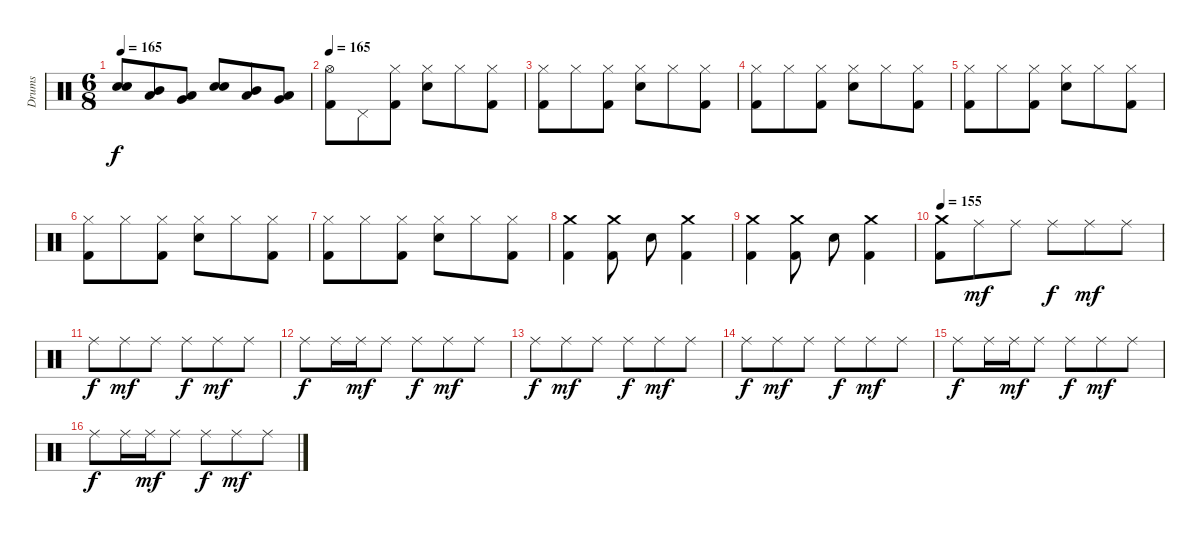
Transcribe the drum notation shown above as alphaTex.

\track ("Drums" "Drums") {instrument percussion}
\staff {score}
\articulation defaults
\ts (6 8)
\tempo 165
\clef neutral
\ks c
("Electric Snare (hit)" "Electric Snare (hit)").8{dy f} ("Low Tom (hit)" "Mid Tom (hit)").8 ("Very Low Tom (hit)" "Low Tom (hit)").8 ("Electric Snare (hit)" "Electric Snare (hit)").8 ("Low Tom (hit)" "Mid Tom (hit)").8 ("Very Low Tom (hit)" "Low Tom (hit)").8 |
\tempo 165
("Hi-Hat (open)" "Kick (hit) 2").8 "Pedal Hi-Hat (hit)".8 ("Hi-Hat (closed)" "Kick (hit) 2").8 ("Hi-Hat (closed)" "Electric Snare (hit)").8 "Hi-Hat (closed)".8 ("Hi-Hat (closed)" "Kick (hit) 2").8 |
("Hi-Hat (closed)" "Kick (hit) 2").8 "Hi-Hat (closed)".8 ("Hi-Hat (closed)" "Kick (hit) 2").8 ("Hi-Hat (closed)" "Electric Snare (hit)").8 "Hi-Hat (closed)".8 ("Hi-Hat (closed)" "Kick (hit) 2").8 |
("Hi-Hat (closed)" "Kick (hit) 2").8 "Hi-Hat (closed)".8 ("Hi-Hat (closed)" "Kick (hit) 2").8 ("Hi-Hat (closed)" "Electric Snare (hit)").8 "Hi-Hat (closed)".8 ("Hi-Hat (closed)" "Kick (hit) 2").8 |
("Hi-Hat (closed)" "Kick (hit) 2").8 "Hi-Hat (closed)".8 ("Hi-Hat (closed)" "Kick (hit) 2").8 ("Hi-Hat (closed)" "Electric Snare (hit)").8 "Hi-Hat (closed)".8 ("Hi-Hat (closed)" "Kick (hit) 2").8 |
("Hi-Hat (closed)" "Kick (hit) 2").8 "Hi-Hat (closed)".8 ("Hi-Hat (closed)" "Kick (hit) 2").8 ("Hi-Hat (closed)" "Electric Snare (hit)").8 "Hi-Hat (closed)".8 ("Hi-Hat (closed)" "Kick (hit) 2").8 |
("Hi-Hat (closed)" "Kick (hit) 2").8 "Hi-Hat (closed)".8 ("Hi-Hat (closed)" "Kick (hit) 2").8 ("Hi-Hat (closed)" "Electric Snare (hit)").8 "Hi-Hat (closed)".8 ("Hi-Hat (closed)" "Kick (hit) 2").8 |
("Crash medium (hit)" "Kick (hit) 2").4 ("Crash medium (hit)" "Kick (hit) 2").8 "Electric Snare (hit)".8 ("Crash medium (hit)" "Kick (hit) 2").4 |
("Crash medium (hit)" "Kick (hit) 2").4 ("Crash medium (hit)" "Kick (hit) 2").8 "Electric Snare (hit)".8 ("Crash medium (hit)" "Kick (hit) 2").4 |
\tempo 155
("Crash medium (hit)" "Kick (hit) 2").8 "Ride (middle)".8{dy mf} "Ride (middle)".8 "Ride (middle)".8{dy f} "Ride (middle)".8{dy mf} "Ride (middle)".8 |
"Ride (middle)".8{dy f} "Ride (middle)".8{dy mf} "Ride (middle)".8 "Ride (middle)".8{dy f} "Ride (middle)".8{dy mf} "Ride (middle)".8 |
"Ride (middle)".8{dy f} "Ride (middle)".16 "Ride (middle)".16{dy mf} "Ride (middle)".8 "Ride (middle)".8{dy f} "Ride (middle)".8{dy mf} "Ride (middle)".8 |
"Ride (middle)".8{dy f} "Ride (middle)".8{dy mf} "Ride (middle)".8 "Ride (middle)".8{dy f} "Ride (middle)".8{dy mf} "Ride (middle)".8 |
"Ride (middle)".8{dy f} "Ride (middle)".8{dy mf} "Ride (middle)".8 "Ride (middle)".8{dy f} "Ride (middle)".8{dy mf} "Ride (middle)".8 |
"Ride (middle)".8{dy f} "Ride (middle)".16 "Ride (middle)".16{dy mf} "Ride (middle)".8 "Ride (middle)".8{dy f} "Ride (middle)".8{dy mf} "Ride (middle)".8 |
"Ride (middle)".8{dy f} "Ride (middle)".16 "Ride (middle)".16{dy mf} "Ride (middle)".8 "Ride (middle)".8{dy f} "Ride (middle)".8{dy mf} "Ride (middle)".8
